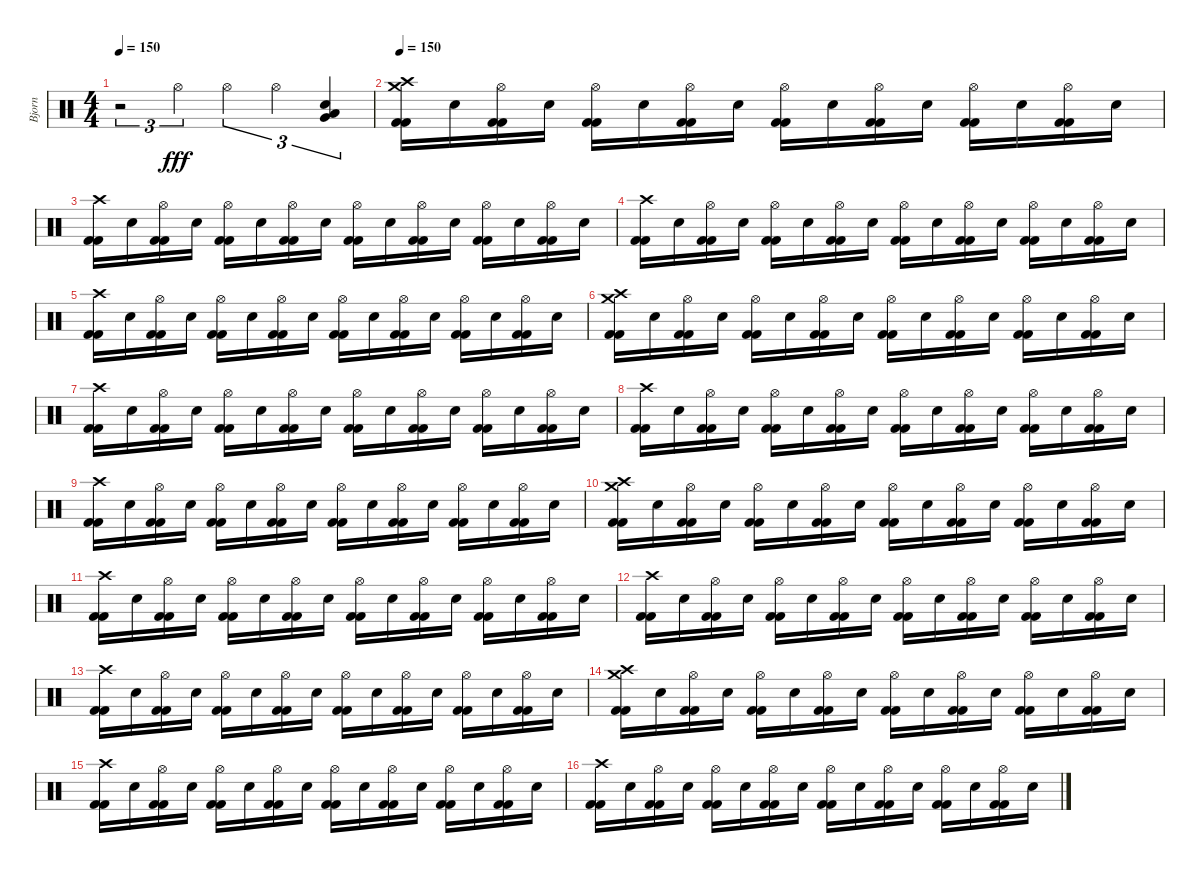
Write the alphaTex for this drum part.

\track ("Bjorn" "Bjorn") {instrument percussion}
\staff {score}
\articulation defaults
\ts (4 4)
\tempo 150
\tempo 160
\tempo 150
\clef neutral
\ks c
r.2{tu (3 2) dy fff} "Hi-Hat (open)".4{tu (3 2)} "Hi-Hat (open)".4{tu (3 2)} "Hi-Hat (open)".4{tu (3 2)} ("Snare (hit) 2" "Low Tom (hit)" "Very Low Tom (hit)").4{tu (3 2)} |
\tempo 150
("Kick (hit) 2" "Kick (hit) 2" "Crash high (hit)" "Crash medium (hit)").16 "Snare (hit) 2".16 ("Kick (hit) 2" "Kick (hit) 2" "Hi-Hat (open)").16 "Snare (hit) 2".16 ("Kick (hit) 2" "Kick (hit) 2" "Hi-Hat (open)").16 "Snare (hit) 2".16 ("Kick (hit) 2" "Kick (hit) 2" "Hi-Hat (open)").16 "Snare (hit) 2".16 ("Kick (hit) 2" "Kick (hit) 2" "Hi-Hat (open)").16 "Snare (hit) 2".16 ("Kick (hit) 2" "Kick (hit) 2" "Hi-Hat (open)").16 "Snare (hit) 2".16 ("Kick (hit) 2" "Kick (hit) 2" "Hi-Hat (open)").16 "Snare (hit) 2".16 ("Kick (hit) 2" "Kick (hit) 2" "Hi-Hat (open)").16 "Snare (hit) 2".16 |
("Kick (hit) 2" "Kick (hit) 2" "Crash high (hit)").16 "Snare (hit) 2".16 ("Kick (hit) 2" "Kick (hit) 2" "Hi-Hat (open)").16 "Snare (hit) 2".16 ("Kick (hit) 2" "Kick (hit) 2" "Hi-Hat (open)").16 "Snare (hit) 2".16 ("Kick (hit) 2" "Kick (hit) 2" "Hi-Hat (open)").16 "Snare (hit) 2".16 ("Kick (hit) 2" "Kick (hit) 2" "Hi-Hat (open)").16 "Snare (hit) 2".16 ("Kick (hit) 2" "Kick (hit) 2" "Hi-Hat (open)").16 "Snare (hit) 2".16 ("Kick (hit) 2" "Kick (hit) 2" "Hi-Hat (open)").16 "Snare (hit) 2".16 ("Kick (hit) 2" "Kick (hit) 2" "Hi-Hat (open)").16 "Snare (hit) 2".16 |
("Kick (hit) 2" "Kick (hit) 2" "Crash high (hit)").16 "Snare (hit) 2".16 ("Kick (hit) 2" "Kick (hit) 2" "Hi-Hat (open)").16 "Snare (hit) 2".16 ("Kick (hit) 2" "Kick (hit) 2" "Hi-Hat (open)").16 "Snare (hit) 2".16 ("Kick (hit) 2" "Kick (hit) 2" "Hi-Hat (open)").16 "Snare (hit) 2".16 ("Kick (hit) 2" "Kick (hit) 2" "Hi-Hat (open)").16 "Snare (hit) 2".16 ("Kick (hit) 2" "Kick (hit) 2" "Hi-Hat (open)").16 "Snare (hit) 2".16 ("Kick (hit) 2" "Kick (hit) 2" "Hi-Hat (open)").16 "Snare (hit) 2".16 ("Kick (hit) 2" "Kick (hit) 2" "Hi-Hat (open)").16 "Snare (hit) 2".16 |
("Kick (hit) 2" "Kick (hit) 2" "Crash high (hit)").16 "Snare (hit) 2".16 ("Kick (hit) 2" "Kick (hit) 2" "Hi-Hat (open)").16 "Snare (hit) 2".16 ("Kick (hit) 2" "Kick (hit) 2" "Hi-Hat (open)").16 "Snare (hit) 2".16 ("Kick (hit) 2" "Kick (hit) 2" "Hi-Hat (open)").16 "Snare (hit) 2".16 ("Kick (hit) 2" "Kick (hit) 2" "Hi-Hat (open)").16 "Snare (hit) 2".16 ("Kick (hit) 2" "Kick (hit) 2" "Hi-Hat (open)").16 "Snare (hit) 2".16 ("Kick (hit) 2" "Kick (hit) 2" "Hi-Hat (open)").16 "Snare (hit) 2".16 ("Kick (hit) 2" "Kick (hit) 2" "Hi-Hat (open)").16 "Snare (hit) 2".16 |
("Kick (hit) 2" "Kick (hit) 2" "Crash high (hit)" "Crash medium (hit)").16 "Snare (hit) 2".16 ("Kick (hit) 2" "Kick (hit) 2" "Hi-Hat (open)").16 "Snare (hit) 2".16 ("Kick (hit) 2" "Kick (hit) 2" "Hi-Hat (open)").16 "Snare (hit) 2".16 ("Kick (hit) 2" "Kick (hit) 2" "Hi-Hat (open)").16 "Snare (hit) 2".16 ("Kick (hit) 2" "Kick (hit) 2" "Hi-Hat (open)").16 "Snare (hit) 2".16 ("Kick (hit) 2" "Kick (hit) 2" "Hi-Hat (open)").16 "Snare (hit) 2".16 ("Kick (hit) 2" "Kick (hit) 2" "Hi-Hat (open)").16 "Snare (hit) 2".16 ("Kick (hit) 2" "Kick (hit) 2" "Hi-Hat (open)").16 "Snare (hit) 2".16 |
("Kick (hit) 2" "Kick (hit) 2" "Crash high (hit)").16 "Snare (hit) 2".16 ("Kick (hit) 2" "Kick (hit) 2" "Hi-Hat (open)").16 "Snare (hit) 2".16 ("Kick (hit) 2" "Kick (hit) 2" "Hi-Hat (open)").16 "Snare (hit) 2".16 ("Kick (hit) 2" "Kick (hit) 2" "Hi-Hat (open)").16 "Snare (hit) 2".16 ("Kick (hit) 2" "Kick (hit) 2" "Hi-Hat (open)").16 "Snare (hit) 2".16 ("Kick (hit) 2" "Kick (hit) 2" "Hi-Hat (open)").16 "Snare (hit) 2".16 ("Kick (hit) 2" "Kick (hit) 2" "Hi-Hat (open)").16 "Snare (hit) 2".16 ("Kick (hit) 2" "Kick (hit) 2" "Hi-Hat (open)").16 "Snare (hit) 2".16 |
("Kick (hit) 2" "Kick (hit) 2" "Crash high (hit)").16 "Snare (hit) 2".16 ("Kick (hit) 2" "Kick (hit) 2" "Hi-Hat (open)").16 "Snare (hit) 2".16 ("Kick (hit) 2" "Kick (hit) 2" "Hi-Hat (open)").16 "Snare (hit) 2".16 ("Kick (hit) 2" "Kick (hit) 2" "Hi-Hat (open)").16 "Snare (hit) 2".16 ("Kick (hit) 2" "Kick (hit) 2" "Hi-Hat (open)").16 "Snare (hit) 2".16 ("Kick (hit) 2" "Kick (hit) 2" "Hi-Hat (open)").16 "Snare (hit) 2".16 ("Kick (hit) 2" "Kick (hit) 2" "Hi-Hat (open)").16 "Snare (hit) 2".16 ("Kick (hit) 2" "Kick (hit) 2" "Hi-Hat (open)").16 "Snare (hit) 2".16 |
("Kick (hit) 2" "Kick (hit) 2" "Crash high (hit)").16 "Snare (hit) 2".16 ("Kick (hit) 2" "Kick (hit) 2" "Hi-Hat (open)").16 "Snare (hit) 2".16 ("Kick (hit) 2" "Kick (hit) 2" "Hi-Hat (open)").16 "Snare (hit) 2".16 ("Kick (hit) 2" "Kick (hit) 2" "Hi-Hat (open)").16 "Snare (hit) 2".16 ("Kick (hit) 2" "Kick (hit) 2" "Hi-Hat (open)").16 "Snare (hit) 2".16 ("Kick (hit) 2" "Kick (hit) 2" "Hi-Hat (open)").16 "Snare (hit) 2".16 ("Kick (hit) 2" "Kick (hit) 2" "Hi-Hat (open)").16 "Snare (hit) 2".16 ("Kick (hit) 2" "Kick (hit) 2" "Hi-Hat (open)").16 "Snare (hit) 2".16 |
("Kick (hit) 2" "Kick (hit) 2" "Crash high (hit)" "Crash medium (hit)").16 "Snare (hit) 2".16 ("Kick (hit) 2" "Kick (hit) 2" "Hi-Hat (open)").16 "Snare (hit) 2".16 ("Kick (hit) 2" "Kick (hit) 2" "Hi-Hat (open)").16 "Snare (hit) 2".16 ("Kick (hit) 2" "Kick (hit) 2" "Hi-Hat (open)").16 "Snare (hit) 2".16 ("Kick (hit) 2" "Kick (hit) 2" "Hi-Hat (open)").16 "Snare (hit) 2".16 ("Kick (hit) 2" "Kick (hit) 2" "Hi-Hat (open)").16 "Snare (hit) 2".16 ("Kick (hit) 2" "Kick (hit) 2" "Hi-Hat (open)").16 "Snare (hit) 2".16 ("Kick (hit) 2" "Kick (hit) 2" "Hi-Hat (open)").16 "Snare (hit) 2".16 |
("Kick (hit) 2" "Kick (hit) 2" "Crash high (hit)").16 "Snare (hit) 2".16 ("Kick (hit) 2" "Kick (hit) 2" "Hi-Hat (open)").16 "Snare (hit) 2".16 ("Kick (hit) 2" "Kick (hit) 2" "Hi-Hat (open)").16 "Snare (hit) 2".16 ("Kick (hit) 2" "Kick (hit) 2" "Hi-Hat (open)").16 "Snare (hit) 2".16 ("Kick (hit) 2" "Kick (hit) 2" "Hi-Hat (open)").16 "Snare (hit) 2".16 ("Kick (hit) 2" "Kick (hit) 2" "Hi-Hat (open)").16 "Snare (hit) 2".16 ("Kick (hit) 2" "Kick (hit) 2" "Hi-Hat (open)").16 "Snare (hit) 2".16 ("Kick (hit) 2" "Kick (hit) 2" "Hi-Hat (open)").16 "Snare (hit) 2".16 |
("Kick (hit) 2" "Kick (hit) 2" "Crash high (hit)").16 "Snare (hit) 2".16 ("Kick (hit) 2" "Kick (hit) 2" "Hi-Hat (open)").16 "Snare (hit) 2".16 ("Kick (hit) 2" "Kick (hit) 2" "Hi-Hat (open)").16 "Snare (hit) 2".16 ("Kick (hit) 2" "Kick (hit) 2" "Hi-Hat (open)").16 "Snare (hit) 2".16 ("Kick (hit) 2" "Kick (hit) 2" "Hi-Hat (open)").16 "Snare (hit) 2".16 ("Kick (hit) 2" "Kick (hit) 2" "Hi-Hat (open)").16 "Snare (hit) 2".16 ("Kick (hit) 2" "Kick (hit) 2" "Hi-Hat (open)").16 "Snare (hit) 2".16 ("Kick (hit) 2" "Kick (hit) 2" "Hi-Hat (open)").16 "Snare (hit) 2".16 |
("Kick (hit) 2" "Kick (hit) 2" "Crash high (hit)").16 "Snare (hit) 2".16 ("Kick (hit) 2" "Kick (hit) 2" "Hi-Hat (open)").16 "Snare (hit) 2".16 ("Kick (hit) 2" "Kick (hit) 2" "Hi-Hat (open)").16 "Snare (hit) 2".16 ("Kick (hit) 2" "Kick (hit) 2" "Hi-Hat (open)").16 "Snare (hit) 2".16 ("Kick (hit) 2" "Kick (hit) 2" "Hi-Hat (open)").16 "Snare (hit) 2".16 ("Kick (hit) 2" "Kick (hit) 2" "Hi-Hat (open)").16 "Snare (hit) 2".16 ("Kick (hit) 2" "Kick (hit) 2" "Hi-Hat (open)").16 "Snare (hit) 2".16 ("Kick (hit) 2" "Kick (hit) 2" "Hi-Hat (open)").16 "Snare (hit) 2".16 |
("Kick (hit) 2" "Kick (hit) 2" "Crash high (hit)" "Crash medium (hit)").16 "Snare (hit) 2".16 ("Kick (hit) 2" "Kick (hit) 2" "Hi-Hat (open)").16 "Snare (hit) 2".16 ("Kick (hit) 2" "Kick (hit) 2" "Hi-Hat (open)").16 "Snare (hit) 2".16 ("Kick (hit) 2" "Kick (hit) 2" "Hi-Hat (open)").16 "Snare (hit) 2".16 ("Kick (hit) 2" "Kick (hit) 2" "Hi-Hat (open)").16 "Snare (hit) 2".16 ("Kick (hit) 2" "Kick (hit) 2" "Hi-Hat (open)").16 "Snare (hit) 2".16 ("Kick (hit) 2" "Kick (hit) 2" "Hi-Hat (open)").16 "Snare (hit) 2".16 ("Kick (hit) 2" "Kick (hit) 2" "Hi-Hat (open)").16 "Snare (hit) 2".16 |
("Kick (hit) 2" "Kick (hit) 2" "Crash high (hit)").16 "Snare (hit) 2".16 ("Kick (hit) 2" "Kick (hit) 2" "Hi-Hat (open)").16 "Snare (hit) 2".16 ("Kick (hit) 2" "Kick (hit) 2" "Hi-Hat (open)").16 "Snare (hit) 2".16 ("Kick (hit) 2" "Kick (hit) 2" "Hi-Hat (open)").16 "Snare (hit) 2".16 ("Kick (hit) 2" "Kick (hit) 2" "Hi-Hat (open)").16 "Snare (hit) 2".16 ("Kick (hit) 2" "Kick (hit) 2" "Hi-Hat (open)").16 "Snare (hit) 2".16 ("Kick (hit) 2" "Kick (hit) 2" "Hi-Hat (open)").16 "Snare (hit) 2".16 ("Kick (hit) 2" "Kick (hit) 2" "Hi-Hat (open)").16 "Snare (hit) 2".16 |
("Kick (hit) 2" "Kick (hit) 2" "Crash high (hit)").16 "Snare (hit) 2".16 ("Kick (hit) 2" "Kick (hit) 2" "Hi-Hat (open)").16 "Snare (hit) 2".16 ("Kick (hit) 2" "Kick (hit) 2" "Hi-Hat (open)").16 "Snare (hit) 2".16 ("Kick (hit) 2" "Kick (hit) 2" "Hi-Hat (open)").16 "Snare (hit) 2".16 ("Kick (hit) 2" "Kick (hit) 2" "Hi-Hat (open)").16 "Snare (hit) 2".16 ("Kick (hit) 2" "Kick (hit) 2" "Hi-Hat (open)").16 "Snare (hit) 2".16 ("Kick (hit) 2" "Kick (hit) 2" "Hi-Hat (open)").16 "Snare (hit) 2".16 ("Kick (hit) 2" "Kick (hit) 2" "Hi-Hat (open)").16 "Snare (hit) 2".16
